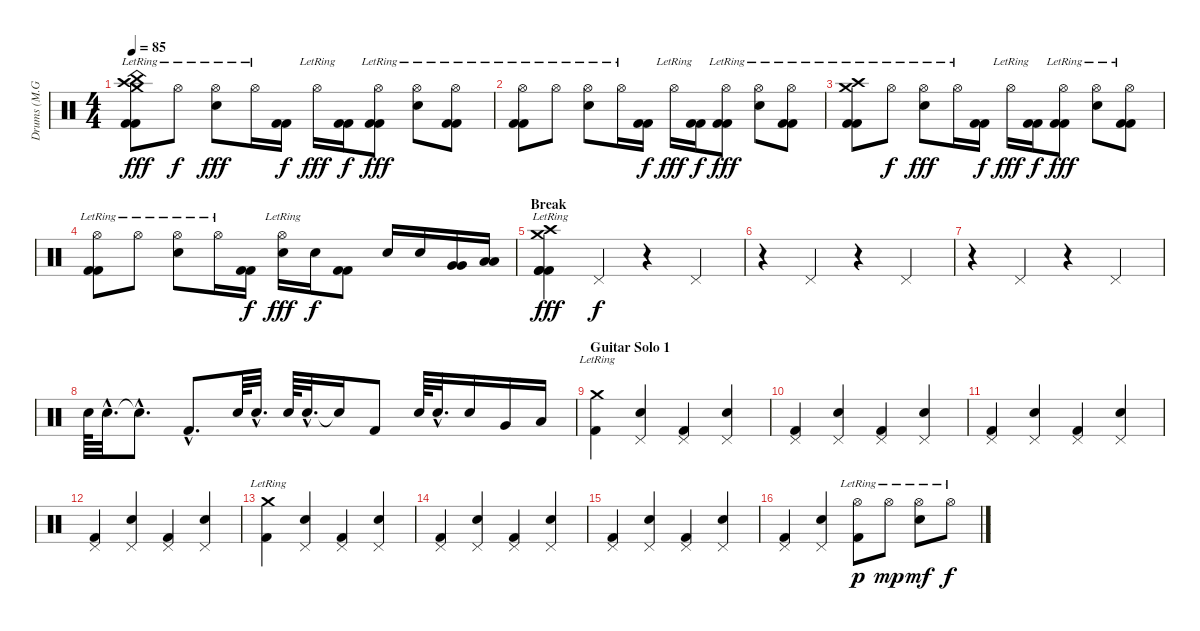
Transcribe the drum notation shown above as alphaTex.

\track ("Drums (M.Grosskopf)" "Drums (M.G") {instrument percussion}
\staff {score}
\articulation defaults
\ts (4 4)
\tempo 85
\clef neutral
\ks c
("Crash high (hit)"{lr} "Crash medium (hit)"{lr} "Kick (hit) 2" "Kick (hit) 2" "China (hit)"{lr}).8{dy fff} "Hi-Hat (open)"{lr}.8{dy f} ("Hi-Hat (open)"{lr} "Electric Snare (hit)").8{dy fff} "Hi-Hat (open)"{lr}.16 ("Kick (hit) 2" "Kick (hit) 2").16{dy f} "Hi-Hat (open)"{lr}.16{dy fff} ("Kick (hit) 2" "Kick (hit) 2").16{dy f} ("Hi-Hat (open)"{lr} "Kick (hit) 2" "Kick (hit) 2").8{dy fff} ("Hi-Hat (open)"{lr} "Electric Snare (hit)").8 ("Hi-Hat (open)"{lr} "Kick (hit) 2" "Kick (hit) 2").8 |
("Hi-Hat (open)"{lr} "Kick (hit) 2" "Kick (hit) 2").8 "Hi-Hat (open)"{lr}.8 ("Hi-Hat (open)"{lr} "Electric Snare (hit)").8 "Hi-Hat (open)"{lr}.16 ("Kick (hit) 2" "Kick (hit) 2").16{dy f} "Hi-Hat (open)"{lr}.16{dy fff} ("Kick (hit) 2" "Kick (hit) 2").16{dy f} ("Hi-Hat (open)"{lr} "Kick (hit) 2" "Kick (hit) 2").8{dy fff} ("Hi-Hat (open)"{lr} "Electric Snare (hit)").8 ("Hi-Hat (open)"{lr} "Kick (hit) 2" "Kick (hit) 2").8 |
("Crash high (hit)"{lr} "Crash medium (hit)"{lr} "Kick (hit) 2" "Kick (hit) 2").8 "Hi-Hat (open)"{lr}.8{dy f} ("Hi-Hat (open)"{lr} "Electric Snare (hit)").8{dy fff} "Hi-Hat (open)"{lr}.16 ("Kick (hit) 2" "Kick (hit) 2").16{dy f} "Hi-Hat (open)"{lr}.16{dy fff} ("Kick (hit) 2" "Kick (hit) 2").16{dy f} ("Hi-Hat (open)"{lr} "Kick (hit) 2" "Kick (hit) 2").8{dy fff} ("Hi-Hat (open)"{lr} "Electric Snare (hit)").8 ("Hi-Hat (open)"{lr} "Kick (hit) 2" "Kick (hit) 2").8 |
("Hi-Hat (open)"{lr} "Kick (hit) 2" "Kick (hit) 2").8 "Hi-Hat (open)"{lr}.8 ("Hi-Hat (open)"{lr} "Electric Snare (hit)").8 "Hi-Hat (open)"{lr}.16 ("Kick (hit) 2" "Kick (hit) 2").16{dy f} ("Hi-Hat (open)"{lr} "Electric Snare (hit)").16{dy fff} "Electric Snare (hit)".16{dy f} ("Kick (hit) 2" "Kick (hit) 2").8 "Electric Snare (hit)".16 "Electric Snare (hit)".16 ("Very Low Tom (hit)" "Very Low Tom (hit)").16 ("Low Floor Tom (hit)" "Low Floor Tom (hit)").16 |
\section ("" "Break")
("Crash high (hit)"{lr} "Crash medium (hit)"{lr} "Kick (hit) 2" "Kick (hit) 2" "Kick (hit) 2").4{dy fff} "Pedal Hi-Hat (hit)".4{dy f} r.4 "Pedal Hi-Hat (hit)".4 |
r.4 "Pedal Hi-Hat (hit)".4 r.4 "Pedal Hi-Hat (hit)".4 |
r.4 "Pedal Hi-Hat (hit)".4 r.4 "Pedal Hi-Hat (hit)".4 |
"Electric Snare (hit)".64 "Electric Snare (hit)"{hac}.32{d} "Snare (hit)"{hac t}.8{d} "Kick (hit) 2"{hac}.8{d} "Electric Snare (hit)".64 "Electric Snare (hit)"{hac}.32{d} "Electric Snare (hit)".64 "Electric Snare (hit)"{hac}.32{d} "Snare (hit)"{t}.16 "Kick (hit) 2".8 "Electric Snare (hit)".64 "Electric Snare (hit)"{hac}.32{d} "Electric Snare (hit)".16 "Very Low Tom (hit)".16 "Low Floor Tom (hit)".16 |
\section ("" "Guitar Solo 1")
("Crash medium (hit)"{lr} "Kick (hit) 2").4 ("Pedal Hi-Hat (hit)" "Electric Snare (hit)").4 ("Pedal Hi-Hat (hit)" "Kick (hit) 2").4 ("Pedal Hi-Hat (hit)" "Electric Snare (hit)").4 |
("Pedal Hi-Hat (hit)" "Kick (hit) 2").4 ("Pedal Hi-Hat (hit)" "Electric Snare (hit)").4 ("Pedal Hi-Hat (hit)" "Kick (hit) 2").4 ("Pedal Hi-Hat (hit)" "Electric Snare (hit)").4 |
("Pedal Hi-Hat (hit)" "Kick (hit) 2").4 ("Pedal Hi-Hat (hit)" "Electric Snare (hit)").4 ("Pedal Hi-Hat (hit)" "Kick (hit) 2").4 ("Pedal Hi-Hat (hit)" "Electric Snare (hit)").4 |
("Pedal Hi-Hat (hit)" "Kick (hit) 2").4 ("Pedal Hi-Hat (hit)" "Electric Snare (hit)").4 ("Pedal Hi-Hat (hit)" "Kick (hit) 2").4 ("Pedal Hi-Hat (hit)" "Electric Snare (hit)").4 |
("Crash medium (hit)"{lr} "Kick (hit) 2").4 ("Pedal Hi-Hat (hit)" "Electric Snare (hit)").4 ("Pedal Hi-Hat (hit)" "Kick (hit) 2").4 ("Pedal Hi-Hat (hit)" "Electric Snare (hit)").4 |
("Pedal Hi-Hat (hit)" "Kick (hit) 2").4 ("Pedal Hi-Hat (hit)" "Electric Snare (hit)").4 ("Pedal Hi-Hat (hit)" "Kick (hit) 2").4 ("Pedal Hi-Hat (hit)" "Electric Snare (hit)").4 |
("Pedal Hi-Hat (hit)" "Kick (hit) 2").4 ("Pedal Hi-Hat (hit)" "Electric Snare (hit)").4 ("Pedal Hi-Hat (hit)" "Kick (hit) 2").4 ("Pedal Hi-Hat (hit)" "Electric Snare (hit)").4 |
("Pedal Hi-Hat (hit)" "Kick (hit) 2").4 ("Pedal Hi-Hat (hit)" "Electric Snare (hit)").4 ("Hi-Hat (open)"{lr} "Kick (hit) 2").8{dy p} "Hi-Hat (open)"{lr}.8{dy mp} ("Hi-Hat (open)"{lr} "Electric Snare (hit)").8{dy mf} "Hi-Hat (open)"{lr}.8{dy f}
